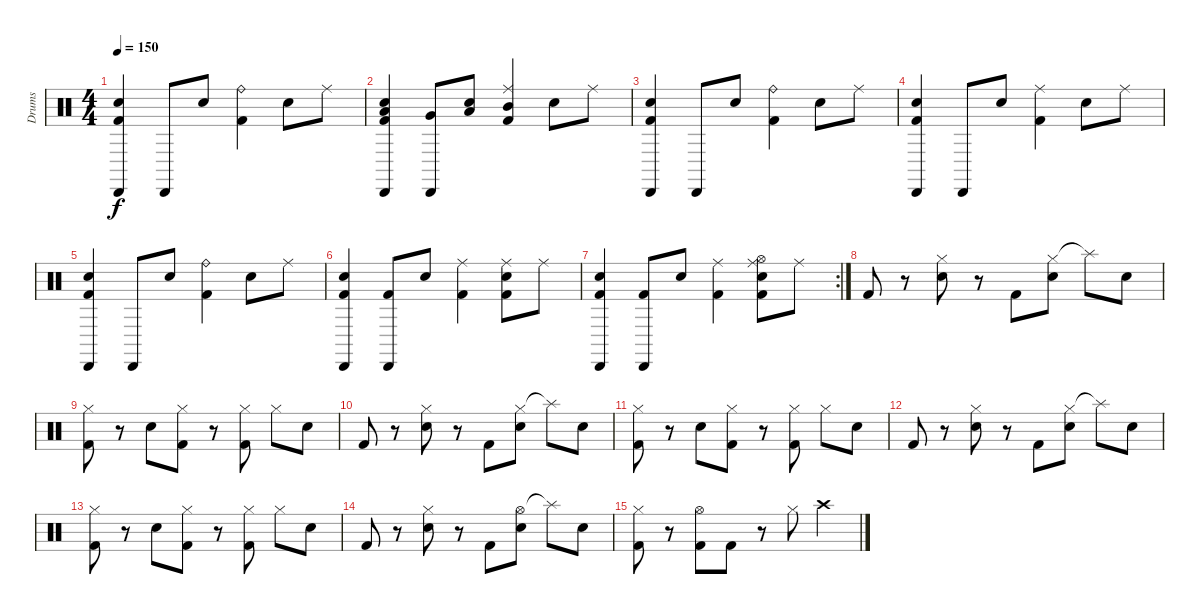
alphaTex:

\track ("Drums" "Drums") {instrument percussion}
\staff {score}
\articulation defaults
\ts (4 4)
\tempo 150
\clef neutral
\ks c
("Cabasa (hit)" "Electric Snare (hit)" "Kick (hit) 2").4{dy f} "Cabasa (hit)".8 "Electric Snare (hit)".8 ("Ride (bell)" "Kick (hit) 2").4 "Electric Snare (hit)".8 "Ride (middle)".8 |
("Cabasa (hit)" "Low Floor Tom (hit)" "Electric Snare (hit)" "Kick (hit) 2").4 ("Cabasa (hit)" "Very Low Tom (hit)").8 ("Electric Snare (hit)" "Low Tom (hit)").8 ("Ride (middle)" "Mid Tom (hit)" "Kick (hit) 2").4 "Electric Snare (hit)".8 "Ride (middle)".8 |
("Cabasa (hit)" "Electric Snare (hit)" "Kick (hit) 2").4 "Cabasa (hit)".8 "Electric Snare (hit)".8 ("Ride (bell)" "Kick (hit) 2").4 "Electric Snare (hit)".8 "Ride (middle)".8 |
("Cabasa (hit)" "Electric Snare (hit)" "Kick (hit) 2").4 "Cabasa (hit)".8 "Electric Snare (hit)".8 ("Ride (middle)" "Kick (hit) 2").4 "Electric Snare (hit)".8 "Ride (middle)".8 |
("Cabasa (hit)" "Electric Snare (hit)" "Kick (hit) 2").4 "Cabasa (hit)".8 "Electric Snare (hit)".8 ("Ride (bell)" "Kick (hit) 2").4 "Electric Snare (hit)".8 "Ride (middle)".8 |
("Cabasa (hit)" "Electric Snare (hit)" "Kick (hit) 2").4 ("Cabasa (hit)" "Kick (hit) 2").8 "Electric Snare (hit)".8 ("Ride (middle)" "Kick (hit) 2").4 ("Ride (middle)" "Electric Snare (hit)" "Kick (hit) 2").8 "Ride (middle)".8 |
\rc 2
("Cabasa (hit)" "Electric Snare (hit)" "Kick (hit) 2").4 ("Cabasa (hit)" "Kick (hit) 2").8 "Electric Snare (hit)".8 ("Ride (middle)" "Kick (hit) 2").4 ("Ride (middle)" "Electric Snare (hit)" "Hi-Hat (open)" "Kick (hit) 2").8 "Ride (middle)".8 |
"Kick (hit) 2".8 r.8 ("Hi-Hat (closed)" "Electric Snare (hit)").8 r.8 "Kick (hit) 2".8 ("Hi-Hat (closed)" "Electric Snare (hit)").8 "Splash (hit)"{t}.8 "Electric Snare (hit)".8 |
("Hi-Hat (closed)" "Kick (hit) 2").8 r.8 "Electric Snare (hit)".8 ("Hi-Hat (closed)" "Kick (hit) 2").8 r.8 ("Hi-Hat (closed)" "Kick (hit) 2").8 "Hi-Hat (closed)".8 "Electric Snare (hit)".8 |
"Kick (hit) 2".8 r.8 ("Hi-Hat (closed)" "Electric Snare (hit)").8 r.8 "Kick (hit) 2".8 ("Hi-Hat (closed)" "Electric Snare (hit)").8 "Splash (hit)"{t}.8 "Electric Snare (hit)".8 |
("Hi-Hat (closed)" "Kick (hit) 2").8 r.8 "Electric Snare (hit)".8 ("Hi-Hat (closed)" "Kick (hit) 2").8 r.8 ("Hi-Hat (closed)" "Kick (hit) 2").8 "Hi-Hat (closed)".8 "Electric Snare (hit)".8 |
"Kick (hit) 2".8 r.8 ("Hi-Hat (closed)" "Electric Snare (hit)").8 r.8 "Kick (hit) 2".8 ("Hi-Hat (closed)" "Electric Snare (hit)").8 "Splash (hit)"{t}.8 "Electric Snare (hit)".8 |
("Hi-Hat (closed)" "Kick (hit) 2").8 r.8 "Electric Snare (hit)".8 ("Hi-Hat (closed)" "Kick (hit) 2").8 r.8 ("Hi-Hat (closed)" "Kick (hit) 2").8 "Hi-Hat (closed)".8 "Electric Snare (hit)".8 |
"Kick (hit) 2".8 r.8 ("Hi-Hat (closed)" "Electric Snare (hit)").8 r.8 "Kick (hit) 2".8 ("Hi-Hat (open)" "Electric Snare (hit)").8 "Splash (hit)"{t}.8 "Electric Snare (hit)".8 |
("Hi-Hat (closed)" "Kick (hit) 2").8 r.8 ("Hi-Hat (open)" "Kick (hit) 2").8 "Kick (hit) 2".8 r.8 "Hi-Hat (closed)".8 "Crash high (hit)".4
